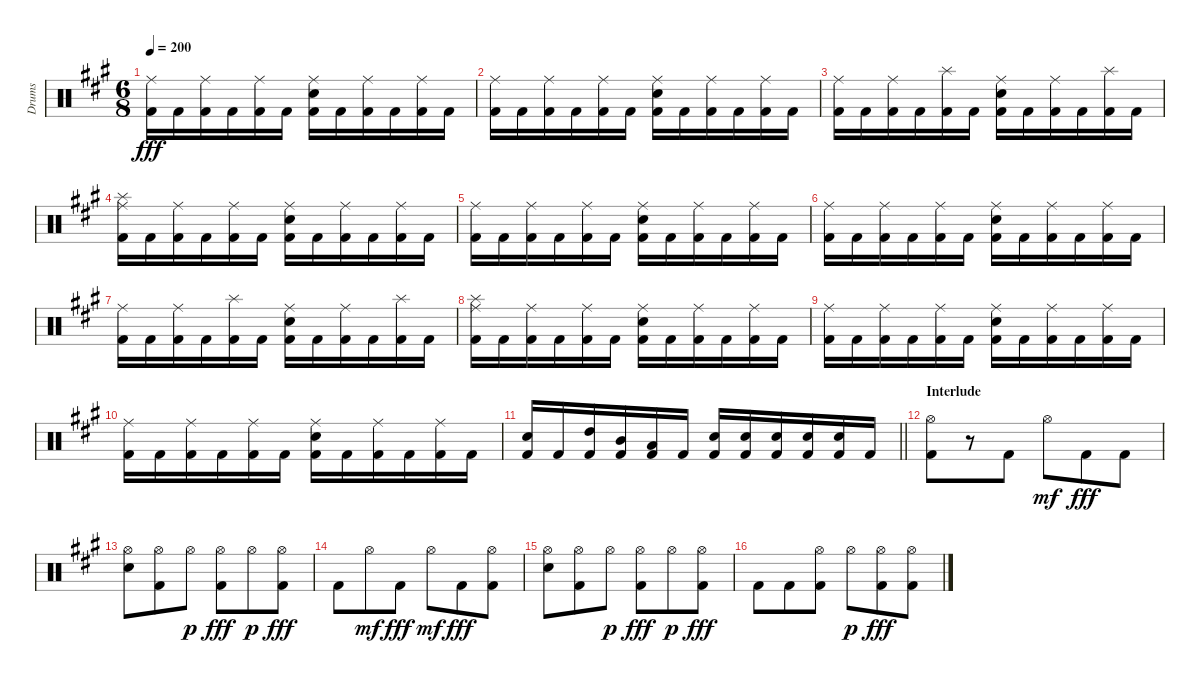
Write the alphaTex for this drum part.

\track ("Drums" "Drums") {instrument percussion}
\staff {score}
\articulation defaults
\ts (6 8)
\tempo 200
\clef neutral
\ks f#minor
("Ride (middle)" "Kick (hit) 2").16{dy fff} "Kick (hit) 2".16 ("Ride (middle)" "Kick (hit) 2").16 "Kick (hit) 2".16 ("Ride (middle)" "Kick (hit) 2").16 "Kick (hit) 2".16 ("Ride (middle)" "Electric Snare (hit)" "Kick (hit) 2").16 "Kick (hit) 2".16 ("Ride (middle)" "Kick (hit) 2").16 "Kick (hit) 2".16 ("Ride (middle)" "Kick (hit) 2").16 "Kick (hit) 2".16 |
("Ride (middle)" "Kick (hit) 2").16 "Kick (hit) 2".16 ("Ride (middle)" "Kick (hit) 2").16 "Kick (hit) 2".16 ("Ride (middle)" "Kick (hit) 2").16 "Kick (hit) 2".16 ("Ride (middle)" "Electric Snare (hit)" "Kick (hit) 2").16 "Kick (hit) 2".16 ("Ride (middle)" "Kick (hit) 2").16 "Kick (hit) 2".16 ("Ride (middle)" "Kick (hit) 2").16 "Kick (hit) 2".16 |
("Ride (middle)" "Kick (hit) 2").16 "Kick (hit) 2".16 ("Ride (middle)" "Kick (hit) 2").16 "Kick (hit) 2".16 ("Splash (hit)" "Kick (hit) 2").16 "Kick (hit) 2".16 ("Ride (middle)" "Electric Snare (hit)" "Kick (hit) 2").16 "Kick (hit) 2".16 ("Ride (middle)" "Kick (hit) 2").16 "Kick (hit) 2".16 ("Splash (hit)" "Kick (hit) 2").16 "Kick (hit) 2".16 |
("Ride (middle)" "Splash (hit)" "Kick (hit) 2").16 "Kick (hit) 2".16 ("Ride (middle)" "Kick (hit) 2").16 "Kick (hit) 2".16 ("Ride (middle)" "Kick (hit) 2").16 "Kick (hit) 2".16 ("Ride (middle)" "Electric Snare (hit)" "Kick (hit) 2").16 "Kick (hit) 2".16 ("Ride (middle)" "Kick (hit) 2").16 "Kick (hit) 2".16 ("Ride (middle)" "Kick (hit) 2").16 "Kick (hit) 2".16 |
("Ride (middle)" "Kick (hit) 2").16 "Kick (hit) 2".16 ("Ride (middle)" "Kick (hit) 2").16 "Kick (hit) 2".16 ("Ride (middle)" "Kick (hit) 2").16 "Kick (hit) 2".16 ("Ride (middle)" "Electric Snare (hit)" "Kick (hit) 2").16 "Kick (hit) 2".16 ("Ride (middle)" "Kick (hit) 2").16 "Kick (hit) 2".16 ("Ride (middle)" "Kick (hit) 2").16 "Kick (hit) 2".16 |
("Ride (middle)" "Kick (hit) 2").16 "Kick (hit) 2".16 ("Ride (middle)" "Kick (hit) 2").16 "Kick (hit) 2".16 ("Ride (middle)" "Kick (hit) 2").16 "Kick (hit) 2".16 ("Ride (middle)" "Electric Snare (hit)" "Kick (hit) 2").16 "Kick (hit) 2".16 ("Ride (middle)" "Kick (hit) 2").16 "Kick (hit) 2".16 ("Ride (middle)" "Kick (hit) 2").16 "Kick (hit) 2".16 |
("Ride (middle)" "Kick (hit) 2").16 "Kick (hit) 2".16 ("Ride (middle)" "Kick (hit) 2").16 "Kick (hit) 2".16 ("Splash (hit)" "Kick (hit) 2").16 "Kick (hit) 2".16 ("Ride (middle)" "Electric Snare (hit)" "Kick (hit) 2").16 "Kick (hit) 2".16 ("Ride (middle)" "Kick (hit) 2").16 "Kick (hit) 2".16 ("Splash (hit)" "Kick (hit) 2").16 "Kick (hit) 2".16 |
("Ride (middle)" "Splash (hit)" "Kick (hit) 2").16 "Kick (hit) 2".16 ("Ride (middle)" "Kick (hit) 2").16 "Kick (hit) 2".16 ("Ride (middle)" "Kick (hit) 2").16 "Kick (hit) 2".16 ("Ride (middle)" "Electric Snare (hit)" "Kick (hit) 2").16 "Kick (hit) 2".16 ("Ride (middle)" "Kick (hit) 2").16 "Kick (hit) 2".16 ("Ride (middle)" "Kick (hit) 2").16 "Kick (hit) 2".16 |
("Ride (middle)" "Kick (hit) 2").16 "Kick (hit) 2".16 ("Ride (middle)" "Kick (hit) 2").16 "Kick (hit) 2".16 ("Ride (middle)" "Kick (hit) 2").16 "Kick (hit) 2".16 ("Ride (middle)" "Electric Snare (hit)" "Kick (hit) 2").16 "Kick (hit) 2".16 ("Ride (middle)" "Kick (hit) 2").16 "Kick (hit) 2".16 ("Ride (middle)" "Kick (hit) 2").16 "Kick (hit) 2".16 |
("Ride (middle)" "Kick (hit) 2").16 "Kick (hit) 2".16 ("Ride (middle)" "Kick (hit) 2").16 "Kick (hit) 2".16 ("Ride (middle)" "Kick (hit) 2").16 "Kick (hit) 2".16 ("Ride (middle)" "Electric Snare (hit)" "Kick (hit) 2").16 "Kick (hit) 2".16 ("Ride (middle)" "Kick (hit) 2").16 "Kick (hit) 2".16 ("Ride (middle)" "Kick (hit) 2").16 "Kick (hit) 2".16 |
\barLineRight lightlight
("Electric Snare (hit)" "Kick (hit) 2").16 "Kick (hit) 2".16 ("High Tom (hit)" "Kick (hit) 2").16 ("Mid Tom (hit)" "Kick (hit) 2").16 ("Low Tom (hit)" "Kick (hit) 2").16 "Kick (hit) 2".16 ("Electric Snare (hit)" "Kick (hit) 2").16 ("Electric Snare (hit)" "Kick (hit) 2").16 ("Electric Snare (hit)" "Kick (hit) 2").16 ("Electric Snare (hit)" "Kick (hit) 2").16 ("Electric Snare (hit)" "Kick (hit) 2").16 "Kick (hit) 2".16 |
\section ("" "Interlude")
("Hi-Hat (open)" "Kick (hit) 2").8 r.8 "Kick (hit) 2".8 "Hi-Hat (open)".8{dy mf} "Kick (hit) 2".8{dy fff} "Kick (hit) 2".8 |
("Hi-Hat (open)" "Electric Snare (hit)").8 ("Hi-Hat (open)" "Kick (hit) 2").8 "Hi-Hat (open)".8{dy p} ("Hi-Hat (open)" "Kick (hit) 2").8{dy fff} "Hi-Hat (open)".8{dy p} ("Hi-Hat (open)" "Kick (hit) 2").8{dy fff} |
"Kick (hit) 2".8 "Hi-Hat (open)".8{dy mf} "Kick (hit) 2".8{dy fff} "Hi-Hat (open)".8{dy mf} "Kick (hit) 2".8{dy fff} ("Hi-Hat (open)" "Kick (hit) 2").8 |
("Hi-Hat (open)" "Electric Snare (hit)").8 ("Hi-Hat (open)" "Kick (hit) 2").8 "Hi-Hat (open)".8{dy p} ("Hi-Hat (open)" "Kick (hit) 2").8{dy fff} "Hi-Hat (open)".8{dy p} ("Hi-Hat (open)" "Kick (hit) 2").8{dy fff} |
"Kick (hit) 2".8 "Kick (hit) 2".8 ("Hi-Hat (open)" "Kick (hit) 2").8 "Hi-Hat (open)".8{dy p} ("Hi-Hat (open)" "Kick (hit) 2").8{dy fff} ("Hi-Hat (open)" "Kick (hit) 2").8
